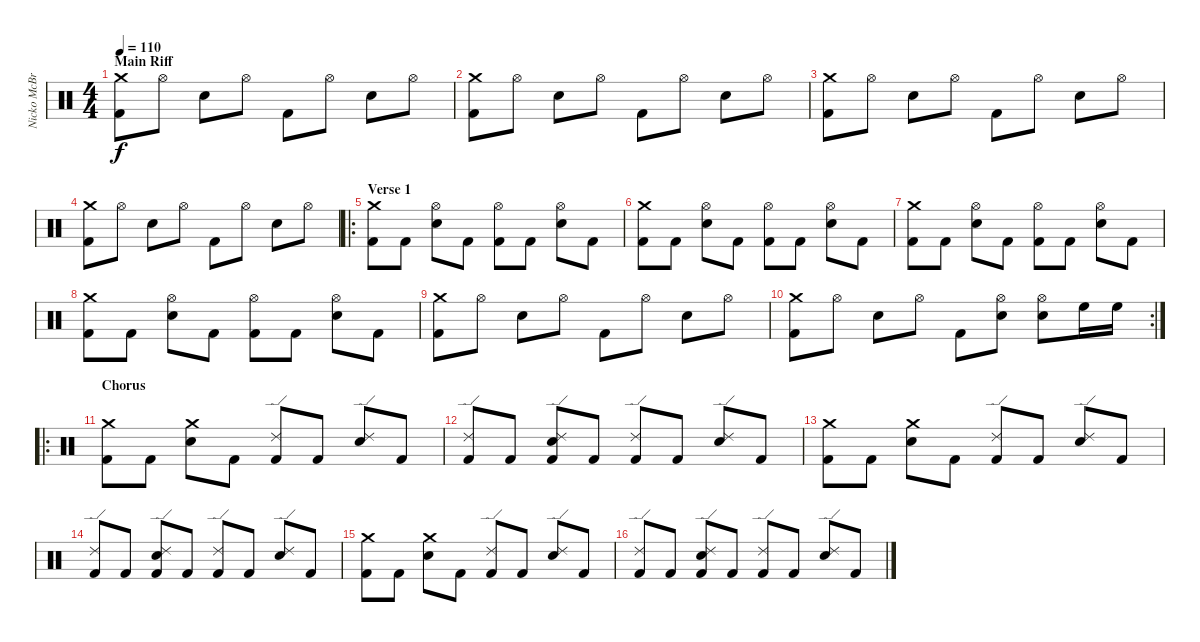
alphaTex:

\track ("Nicko McBrain" "Nicko McBr") {instrument percussion}
\staff {score}
\articulation defaults
\ts (4 4)
\section ("" "Main Riff")
\tempo 110
\clef neutral
\ks c
("Crash medium (hit)" "Kick (hit) 2").8{dy f} "Hi-Hat (open)".8 "Snare (hit) 2".8 "Hi-Hat (open)".8 "Kick (hit) 2".8 "Hi-Hat (open)".8 "Snare (hit) 2".8 "Hi-Hat (open)".8 |
("Crash medium (hit)" "Kick (hit) 2").8 "Hi-Hat (open)".8 "Snare (hit) 2".8 "Hi-Hat (open)".8 "Kick (hit) 2".8 "Hi-Hat (open)".8 "Snare (hit) 2".8 "Hi-Hat (open)".8 |
("Crash medium (hit)" "Kick (hit) 2").8 "Hi-Hat (open)".8 "Snare (hit) 2".8 "Hi-Hat (open)".8 "Kick (hit) 2".8 "Hi-Hat (open)".8 "Snare (hit) 2".8 "Hi-Hat (open)".8 |
("Crash medium (hit)" "Kick (hit) 2").8 "Hi-Hat (open)".8 "Snare (hit) 2".8 "Hi-Hat (open)".8 "Kick (hit) 2".8 "Hi-Hat (open)".8 "Snare (hit) 2".8 "Hi-Hat (open)".8 |
\ro
\section ("" "Verse 1")
("Crash medium (hit)" "Kick (hit) 2").8 "Kick (hit) 2".8 ("Snare (hit) 2" "Hi-Hat (open)").8 "Kick (hit) 2".8 ("Hi-Hat (open)" "Kick (hit) 2").8 "Kick (hit) 2".8 ("Snare (hit) 2" "Hi-Hat (open)").8 "Kick (hit) 2".8 |
("Crash medium (hit)" "Kick (hit) 2").8 "Kick (hit) 2".8 ("Snare (hit) 2" "Hi-Hat (open)").8 "Kick (hit) 2".8 ("Hi-Hat (open)" "Kick (hit) 2").8 "Kick (hit) 2".8 ("Snare (hit) 2" "Hi-Hat (open)").8 "Kick (hit) 2".8 |
("Crash medium (hit)" "Kick (hit) 2").8 "Kick (hit) 2".8 ("Snare (hit) 2" "Hi-Hat (open)").8 "Kick (hit) 2".8 ("Hi-Hat (open)" "Kick (hit) 2").8 "Kick (hit) 2".8 ("Snare (hit) 2" "Hi-Hat (open)").8 "Kick (hit) 2".8 |
("Crash medium (hit)" "Kick (hit) 2").8 "Kick (hit) 2".8 ("Snare (hit) 2" "Hi-Hat (open)").8 "Kick (hit) 2".8 ("Hi-Hat (open)" "Kick (hit) 2").8 "Kick (hit) 2".8 ("Snare (hit) 2" "Hi-Hat (open)").8 "Kick (hit) 2".8 |
("Crash medium (hit)" "Kick (hit) 2").8 "Hi-Hat (open)".8 "Snare (hit) 2".8 "Hi-Hat (open)".8 "Kick (hit) 2".8 "Hi-Hat (open)".8 "Snare (hit) 2".8 "Hi-Hat (open)".8 |
\rc 2
("Crash medium (hit)" "Kick (hit) 2").8 "Hi-Hat (open)".8 "Snare (hit) 2".8 "Hi-Hat (open)".8 "Kick (hit) 2".8 ("Snare (hit) 2" "Hi-Hat (open)").8 ("Snare (hit) 2" "Hi-Hat (open)").8 "High Floor Tom (hit)".16 "High Floor Tom (hit)".16 |
\ro
\section ("" "Chorus")
("Crash medium (hit)" "Kick (hit) 2").8 "Kick (hit) 2".8 ("Snare (hit) 2" "Crash medium (hit)").8 "Kick (hit) 2".8 ("Ride (edge) 2" "Kick (hit) 2").8 "Kick (hit) 2".8 ("Snare (hit) 2" "Ride (edge) 2").8 "Kick (hit) 2".8 |
("Ride (edge) 2" "Kick (hit) 2").8 "Kick (hit) 2".8 ("Snare (hit) 2" "Ride (edge) 2" "Kick (hit) 2").8 "Kick (hit) 2".8 ("Ride (edge) 2" "Kick (hit) 2").8 "Kick (hit) 2".8 ("Snare (hit) 2" "Ride (edge) 2").8 "Kick (hit) 2".8 |
("Crash medium (hit)" "Kick (hit) 2").8 "Kick (hit) 2".8 ("Snare (hit) 2" "Crash medium (hit)").8 "Kick (hit) 2".8 ("Ride (edge) 2" "Kick (hit) 2").8 "Kick (hit) 2".8 ("Snare (hit) 2" "Ride (edge) 2").8 "Kick (hit) 2".8 |
("Ride (edge) 2" "Kick (hit) 2").8 "Kick (hit) 2".8 ("Snare (hit) 2" "Ride (edge) 2" "Kick (hit) 2").8 "Kick (hit) 2".8 ("Ride (edge) 2" "Kick (hit) 2").8 "Kick (hit) 2".8 ("Snare (hit) 2" "Ride (edge) 2").8 "Kick (hit) 2".8 |
("Crash medium (hit)" "Kick (hit) 2").8 "Kick (hit) 2".8 ("Snare (hit) 2" "Crash medium (hit)").8 "Kick (hit) 2".8 ("Ride (edge) 2" "Kick (hit) 2").8 "Kick (hit) 2".8 ("Snare (hit) 2" "Ride (edge) 2").8 "Kick (hit) 2".8 |
("Ride (edge) 2" "Kick (hit) 2").8 "Kick (hit) 2".8 ("Snare (hit) 2" "Ride (edge) 2" "Kick (hit) 2").8 "Kick (hit) 2".8 ("Ride (edge) 2" "Kick (hit) 2").8 "Kick (hit) 2".8 ("Snare (hit) 2" "Ride (edge) 2").8 "Kick (hit) 2".8
